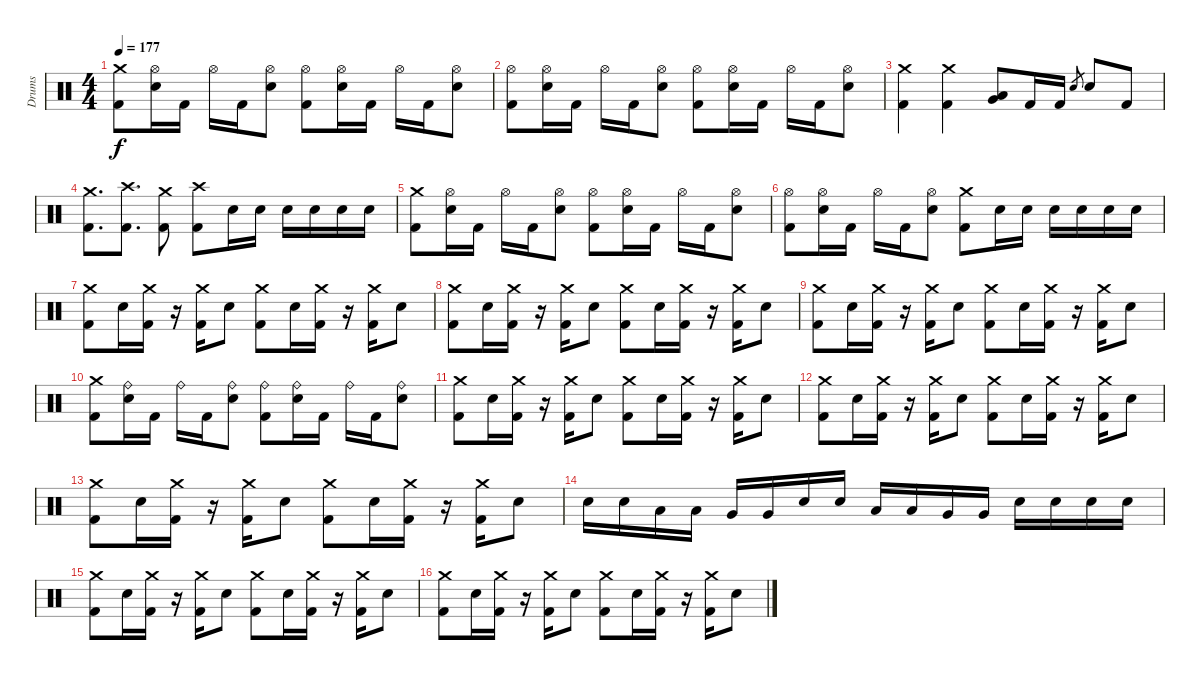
\track ("Drums" "Drums") {instrument percussion}
\staff {score}
\articulation defaults
\ts (4 4)
\tempo 177
\clef neutral
\ks c
("Crash medium (hit)" "Kick (hit) 2").8{dy f} ("Hi-Hat (open)" "Snare (hit) 2").16 "Kick (hit) 2".16 "Hi-Hat (open)".16 "Kick (hit) 2".16 ("Hi-Hat (open)" "Snare (hit) 2").8 ("Hi-Hat (open)" "Kick (hit) 2").8 ("Hi-Hat (open)" "Snare (hit) 2").16 "Kick (hit) 2".16 "Hi-Hat (open)".16 "Kick (hit) 2".16 ("Hi-Hat (open)" "Snare (hit) 2").8 |
("Hi-Hat (open)" "Kick (hit) 2").8 ("Hi-Hat (open)" "Snare (hit) 2").16 "Kick (hit) 2".16 "Hi-Hat (open)".16 "Kick (hit) 2".16 ("Hi-Hat (open)" "Snare (hit) 2").8 ("Hi-Hat (open)" "Kick (hit) 2").8 ("Hi-Hat (open)" "Snare (hit) 2").16 "Kick (hit) 2".16 "Hi-Hat (open)".16 "Kick (hit) 2".16 ("Hi-Hat (open)" "Snare (hit) 2").8 |
("Crash medium (hit)" "Kick (hit) 2").4 ("Crash medium (hit)" "Kick (hit) 2").4 ("Very Low Tom (hit)" "Low Floor Tom (hit)").8 "Kick (hit) 2".16 "Kick (hit) 2".16 "Snare (hit) 2".8{gr} "Snare (hit) 2".8 "Kick (hit) 2".8 |
("Crash medium (hit)" "Kick (hit) 2").8{d} ("Crash high (hit)" "Kick (hit) 2").8{d} ("Crash medium (hit)" "Kick (hit) 2").8 ("Crash high (hit)" "Kick (hit) 2").8 "Snare (hit) 2".16 "Snare (hit) 2".16 "Snare (hit) 2".16 "Snare (hit) 2".16 "Snare (hit) 2".16 "Snare (hit) 2".16 |
("Crash medium (hit)" "Kick (hit) 2").8 ("Hi-Hat (open)" "Snare (hit) 2").16 "Kick (hit) 2".16 "Hi-Hat (open)".16 "Kick (hit) 2".16 ("Hi-Hat (open)" "Snare (hit) 2").8 ("Hi-Hat (open)" "Kick (hit) 2").8 ("Hi-Hat (open)" "Snare (hit) 2").16 "Kick (hit) 2".16 "Hi-Hat (open)".16 "Kick (hit) 2".16 ("Hi-Hat (open)" "Snare (hit) 2").8 |
("Hi-Hat (open)" "Kick (hit) 2").8 ("Hi-Hat (open)" "Snare (hit) 2").16 "Kick (hit) 2".16 "Hi-Hat (open)".16 "Kick (hit) 2".16 ("Hi-Hat (open)" "Snare (hit) 2").8 ("Crash medium (hit)" "Kick (hit) 2").8 "Snare (hit) 2".16 "Snare (hit) 2".16 "Snare (hit) 2".16 "Snare (hit) 2".16 "Snare (hit) 2".16 "Snare (hit) 2".16 |
("Crash medium (hit)" "Kick (hit) 2").8 "Snare (hit) 2".16 ("Crash medium (hit)" "Kick (hit) 2").16 r.16 ("Crash medium (hit)" "Kick (hit) 2").16 "Snare (hit) 2".8 ("Crash medium (hit)" "Kick (hit) 2").8 "Snare (hit) 2".16 ("Crash medium (hit)" "Kick (hit) 2").16 r.16 ("Crash medium (hit)" "Kick (hit) 2").16 "Snare (hit) 2".8 |
("Crash medium (hit)" "Kick (hit) 2").8 "Snare (hit) 2".16 ("Crash medium (hit)" "Kick (hit) 2").16 r.16 ("Crash medium (hit)" "Kick (hit) 2").16 "Snare (hit) 2".8 ("Crash medium (hit)" "Kick (hit) 2").8 "Snare (hit) 2".16 ("Crash medium (hit)" "Kick (hit) 2").16 r.16 ("Crash medium (hit)" "Kick (hit) 2").16 "Snare (hit) 2".8 |
("Crash medium (hit)" "Kick (hit) 2").8 "Snare (hit) 2".16 ("Crash medium (hit)" "Kick (hit) 2").16 r.16 ("Crash medium (hit)" "Kick (hit) 2").16 "Snare (hit) 2".8 ("Crash medium (hit)" "Kick (hit) 2").8 "Snare (hit) 2".16 ("Crash medium (hit)" "Kick (hit) 2").16 r.16 ("Crash medium (hit)" "Kick (hit) 2").16 "Snare (hit) 2".8 |
("Crash medium (hit)" "Kick (hit) 2").8 ("Ride (bell)" "Snare (hit) 2").16 "Kick (hit) 2".16 "Ride (bell)".16 "Kick (hit) 2".16 ("Ride (bell)" "Snare (hit) 2").8 ("Ride (bell)" "Kick (hit) 2").8 ("Ride (bell)" "Snare (hit) 2").16 "Kick (hit) 2".16 "Ride (bell)".16 "Kick (hit) 2".16 ("Ride (bell)" "Snare (hit) 2").8 |
("Crash medium (hit)" "Kick (hit) 2").8 "Snare (hit) 2".16 ("Crash medium (hit)" "Kick (hit) 2").16 r.16 ("Crash medium (hit)" "Kick (hit) 2").16 "Snare (hit) 2".8 ("Crash medium (hit)" "Kick (hit) 2").8 "Snare (hit) 2".16 ("Crash medium (hit)" "Kick (hit) 2").16 r.16 ("Crash medium (hit)" "Kick (hit) 2").16 "Snare (hit) 2".8 |
("Crash medium (hit)" "Kick (hit) 2").8 "Snare (hit) 2".16 ("Crash medium (hit)" "Kick (hit) 2").16 r.16 ("Crash medium (hit)" "Kick (hit) 2").16 "Snare (hit) 2".8 ("Crash medium (hit)" "Kick (hit) 2").8 "Snare (hit) 2".16 ("Crash medium (hit)" "Kick (hit) 2").16 r.16 ("Crash medium (hit)" "Kick (hit) 2").16 "Snare (hit) 2".8 |
("Crash medium (hit)" "Kick (hit) 2").8 "Snare (hit) 2".16 ("Crash medium (hit)" "Kick (hit) 2").16 r.16 ("Crash medium (hit)" "Kick (hit) 2").16 "Snare (hit) 2".8 ("Crash medium (hit)" "Kick (hit) 2").8 "Snare (hit) 2".16 ("Crash medium (hit)" "Kick (hit) 2").16 r.16 ("Crash medium (hit)" "Kick (hit) 2").16 "Snare (hit) 2".8 |
"Snare (hit) 2".16 "Snare (hit) 2".16 "Low Tom (hit)".16 "Low Tom (hit)".16 "Very Low Tom (hit)".16 "Very Low Tom (hit)".16 "Snare (hit) 2".16 "Snare (hit) 2".16 "Low Tom (hit)".16 "Low Tom (hit)".16 "Very Low Tom (hit)".16 "Very Low Tom (hit)".16 "Snare (hit) 2".16 "Snare (hit) 2".16 "Snare (hit) 2".16 "Snare (hit) 2".16 |
("Crash medium (hit)" "Kick (hit) 2").8 "Snare (hit) 2".16 ("Crash medium (hit)" "Kick (hit) 2").16 r.16 ("Crash medium (hit)" "Kick (hit) 2").16 "Snare (hit) 2".8 ("Crash medium (hit)" "Kick (hit) 2").8 "Snare (hit) 2".16 ("Crash medium (hit)" "Kick (hit) 2").16 r.16 ("Crash medium (hit)" "Kick (hit) 2").16 "Snare (hit) 2".8 |
("Crash medium (hit)" "Kick (hit) 2").8 "Snare (hit) 2".16 ("Crash medium (hit)" "Kick (hit) 2").16 r.16 ("Crash medium (hit)" "Kick (hit) 2").16 "Snare (hit) 2".8 ("Crash medium (hit)" "Kick (hit) 2").8 "Snare (hit) 2".16 ("Crash medium (hit)" "Kick (hit) 2").16 r.16 ("Crash medium (hit)" "Kick (hit) 2").16 "Snare (hit) 2".8
